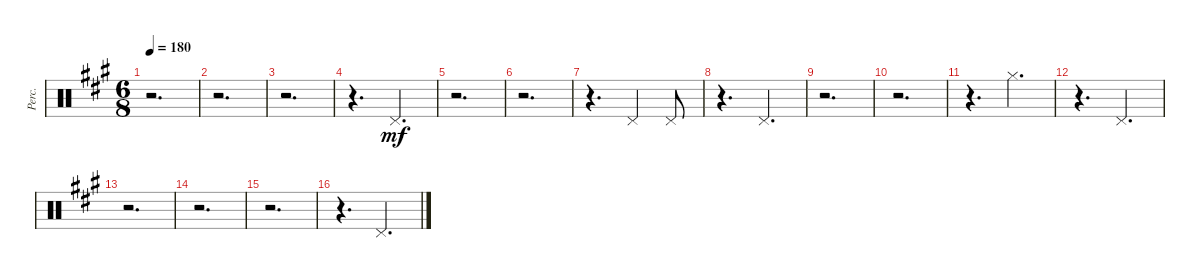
\defaultSystemsLayout 4
\bracketExtendMode groupsimilarinstruments
\otherSystemsTrackNameOrientation horizontal
\track ("Percussions" "Perc.") {instrument percussion}
\staff {score}
\articulation defaults
\ts (6 8)
\tempo 180
\clef neutral
\ks f#minor
r.2{d dy mf beam Down} |
r.2{d beam Down} |
r.2{d beam Down} |
r.4{d beam Down} "Pedal Hi-Hat (hit)"{acc forcenatural}.4{d beam Up} |
r.2{d beam Down} |
r.2{d beam Down} |
r.4{d beam Down} "Pedal Hi-Hat (hit)"{acc forcenatural}.4{beam Up} "Pedal Hi-Hat (hit)"{acc forcenatural}.8{beam Up} |
r.4{d beam Down} "Pedal Hi-Hat (hit)"{acc forcenatural}.4{d beam Up} |
r.2{d beam Down} |
r.2{d beam Down} |
r.4{d beam Down} "Hi-Hat (closed)"{acc forcenatural}.4{d beam Down} |
r.4{d beam Down} "Pedal Hi-Hat (hit)"{acc forcenatural}.4{d beam Up} |
r.2{d beam Down} |
r.2{d beam Down} |
r.2{d beam Down} |
r.4{d beam Down} "Pedal Hi-Hat (hit)"{acc forcenatural}.4{d beam Up}
